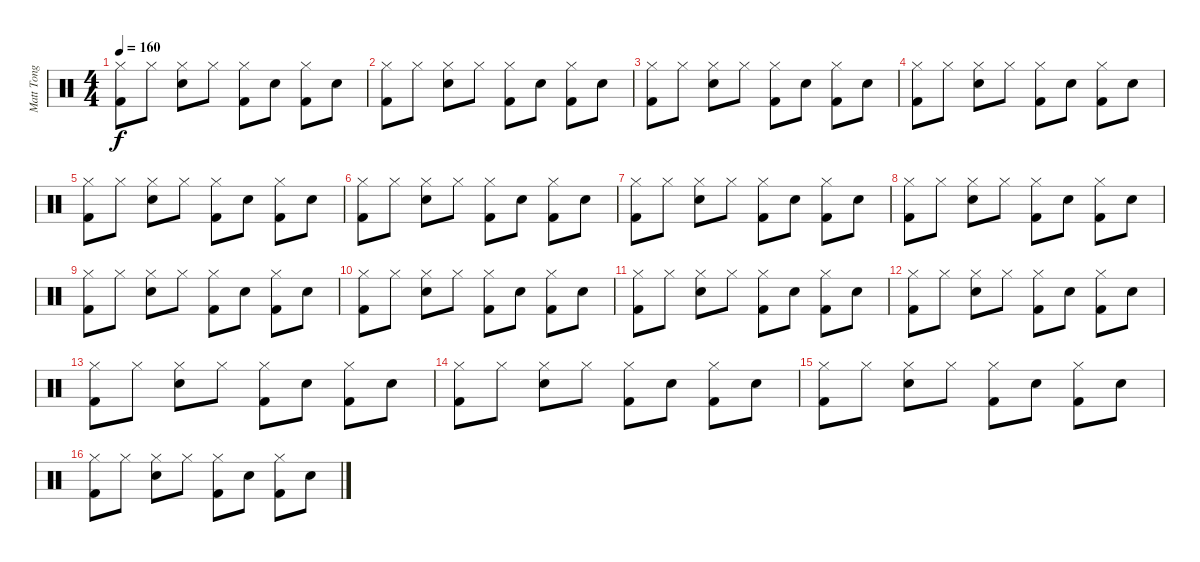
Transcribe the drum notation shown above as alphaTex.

\track ("Matt Tong" "Matt Tong") {instrument percussion}
\staff {score}
\articulation defaults
\ts (4 4)
\tempo 160
\clef neutral
\ks c
("Hi-Hat (closed)" "Kick (hit) 2").8{dy f} "Hi-Hat (closed)".8 ("Hi-Hat (closed)" "Electric Snare (hit)").8 "Hi-Hat (closed)".8 ("Hi-Hat (closed)" "Kick (hit) 2").8 "Electric Snare (hit)".8 ("Hi-Hat (closed)" "Kick (hit) 2").8 "Electric Snare (hit)".8 |
("Hi-Hat (closed)" "Kick (hit) 2").8 "Hi-Hat (closed)".8 ("Hi-Hat (closed)" "Electric Snare (hit)").8 "Hi-Hat (closed)".8 ("Hi-Hat (closed)" "Kick (hit) 2").8 "Electric Snare (hit)".8 ("Hi-Hat (closed)" "Kick (hit) 2").8 "Electric Snare (hit)".8 |
("Hi-Hat (closed)" "Kick (hit) 2").8 "Hi-Hat (closed)".8 ("Hi-Hat (closed)" "Electric Snare (hit)").8 "Hi-Hat (closed)".8 ("Hi-Hat (closed)" "Kick (hit) 2").8 "Electric Snare (hit)".8 ("Hi-Hat (closed)" "Kick (hit) 2").8 "Electric Snare (hit)".8 |
("Hi-Hat (closed)" "Kick (hit) 2").8 "Hi-Hat (closed)".8 ("Hi-Hat (closed)" "Electric Snare (hit)").8 "Hi-Hat (closed)".8 ("Hi-Hat (closed)" "Kick (hit) 2").8 "Electric Snare (hit)".8 ("Hi-Hat (closed)" "Kick (hit) 2").8 "Electric Snare (hit)".8 |
("Hi-Hat (closed)" "Kick (hit) 2").8 "Hi-Hat (closed)".8 ("Hi-Hat (closed)" "Electric Snare (hit)").8 "Hi-Hat (closed)".8 ("Hi-Hat (closed)" "Kick (hit) 2").8 "Electric Snare (hit)".8 ("Hi-Hat (closed)" "Kick (hit) 2").8 "Electric Snare (hit)".8 |
("Hi-Hat (closed)" "Kick (hit) 2").8 "Hi-Hat (closed)".8 ("Hi-Hat (closed)" "Electric Snare (hit)").8 "Hi-Hat (closed)".8 ("Hi-Hat (closed)" "Kick (hit) 2").8 "Electric Snare (hit)".8 ("Hi-Hat (closed)" "Kick (hit) 2").8 "Electric Snare (hit)".8 |
("Hi-Hat (closed)" "Kick (hit) 2").8 "Hi-Hat (closed)".8 ("Hi-Hat (closed)" "Electric Snare (hit)").8 "Hi-Hat (closed)".8 ("Hi-Hat (closed)" "Kick (hit) 2").8 "Electric Snare (hit)".8 ("Hi-Hat (closed)" "Kick (hit) 2").8 "Electric Snare (hit)".8 |
("Hi-Hat (closed)" "Kick (hit) 2").8 "Hi-Hat (closed)".8 ("Hi-Hat (closed)" "Electric Snare (hit)").8 "Hi-Hat (closed)".8 ("Hi-Hat (closed)" "Kick (hit) 2").8 "Electric Snare (hit)".8 ("Hi-Hat (closed)" "Kick (hit) 2").8 "Electric Snare (hit)".8 |
("Hi-Hat (closed)" "Kick (hit) 2").8 "Hi-Hat (closed)".8 ("Hi-Hat (closed)" "Electric Snare (hit)").8 "Hi-Hat (closed)".8 ("Hi-Hat (closed)" "Kick (hit) 2").8 "Electric Snare (hit)".8 ("Hi-Hat (closed)" "Kick (hit) 2").8 "Electric Snare (hit)".8 |
("Hi-Hat (closed)" "Kick (hit) 2").8 "Hi-Hat (closed)".8 ("Hi-Hat (closed)" "Electric Snare (hit)").8 "Hi-Hat (closed)".8 ("Hi-Hat (closed)" "Kick (hit) 2").8 "Electric Snare (hit)".8 ("Hi-Hat (closed)" "Kick (hit) 2").8 "Electric Snare (hit)".8 |
("Hi-Hat (closed)" "Kick (hit) 2").8 "Hi-Hat (closed)".8 ("Hi-Hat (closed)" "Electric Snare (hit)").8 "Hi-Hat (closed)".8 ("Hi-Hat (closed)" "Kick (hit) 2").8 "Electric Snare (hit)".8 ("Hi-Hat (closed)" "Kick (hit) 2").8 "Electric Snare (hit)".8 |
("Hi-Hat (closed)" "Kick (hit) 2").8 "Hi-Hat (closed)".8 ("Hi-Hat (closed)" "Electric Snare (hit)").8 "Hi-Hat (closed)".8 ("Hi-Hat (closed)" "Kick (hit) 2").8 "Electric Snare (hit)".8 ("Hi-Hat (closed)" "Kick (hit) 2").8 "Electric Snare (hit)".8 |
("Hi-Hat (closed)" "Kick (hit) 2").8 "Hi-Hat (closed)".8 ("Hi-Hat (closed)" "Electric Snare (hit)").8 "Hi-Hat (closed)".8 ("Hi-Hat (closed)" "Kick (hit) 2").8 "Electric Snare (hit)".8 ("Hi-Hat (closed)" "Kick (hit) 2").8 "Electric Snare (hit)".8 |
("Hi-Hat (closed)" "Kick (hit) 2").8 "Hi-Hat (closed)".8 ("Hi-Hat (closed)" "Electric Snare (hit)").8 "Hi-Hat (closed)".8 ("Hi-Hat (closed)" "Kick (hit) 2").8 "Electric Snare (hit)".8 ("Hi-Hat (closed)" "Kick (hit) 2").8 "Electric Snare (hit)".8 |
("Hi-Hat (closed)" "Kick (hit) 2").8 "Hi-Hat (closed)".8 ("Hi-Hat (closed)" "Electric Snare (hit)").8 "Hi-Hat (closed)".8 ("Hi-Hat (closed)" "Kick (hit) 2").8 "Electric Snare (hit)".8 ("Hi-Hat (closed)" "Kick (hit) 2").8 "Electric Snare (hit)".8 |
("Hi-Hat (closed)" "Kick (hit) 2").8 "Hi-Hat (closed)".8 ("Hi-Hat (closed)" "Electric Snare (hit)").8 "Hi-Hat (closed)".8 ("Hi-Hat (closed)" "Kick (hit) 2").8 "Electric Snare (hit)".8 ("Hi-Hat (closed)" "Kick (hit) 2").8 "Electric Snare (hit)".8
